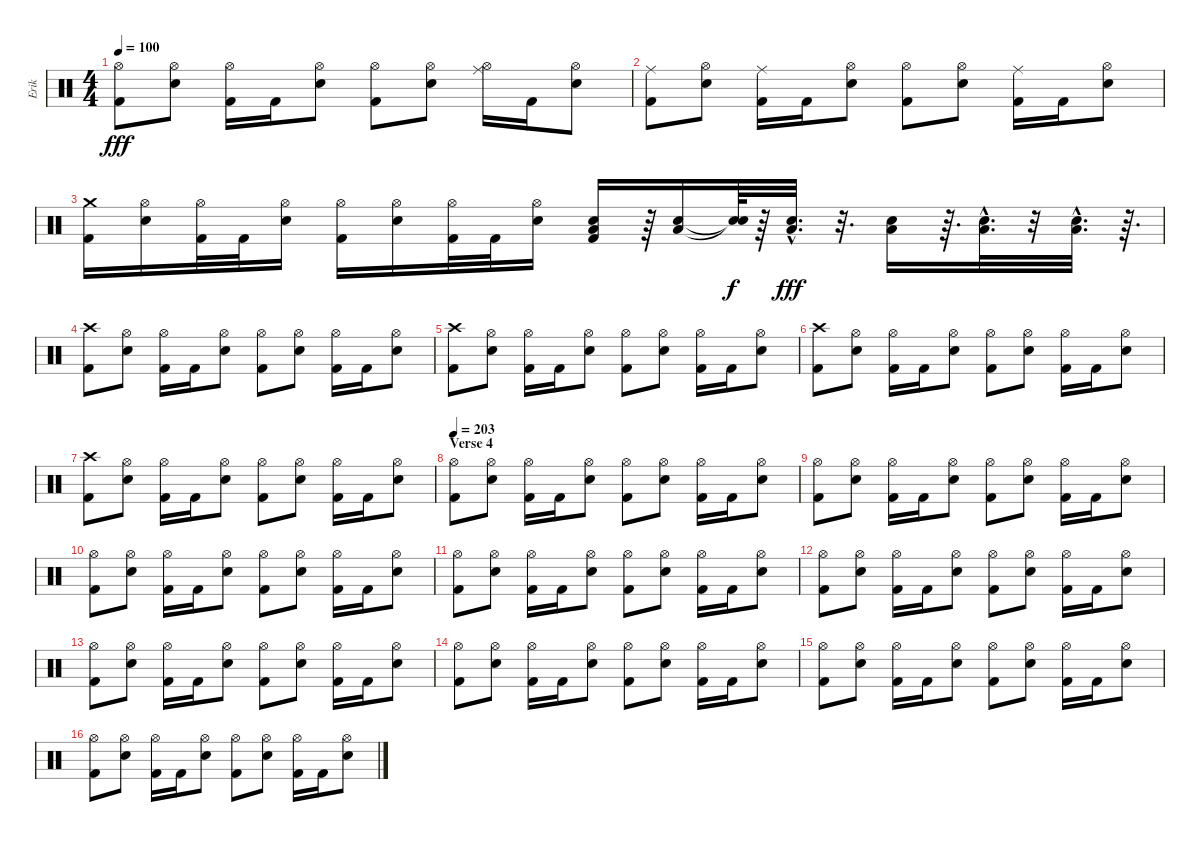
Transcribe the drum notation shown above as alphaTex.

\track ("Erik" "Erik") {instrument percussion}
\staff {score}
\articulation defaults
\ts (4 4)
\tempo 100
\clef neutral
\ks c
("Kick (hit) 2" "Hi-Hat (open)").8{dy fff} ("Electric Snare (hit)" "Hi-Hat (open)").8 ("Kick (hit) 2" "Hi-Hat (open)").16 "Kick (hit) 2".16 ("Electric Snare (hit)" "Hi-Hat (open)").8 ("Kick (hit) 2" "Hi-Hat (open)").8 ("Electric Snare (hit)" "Hi-Hat (open)").8 ("Ride (middle)" "Hi-Hat (open)").16 "Kick (hit) 2".16 ("Electric Snare (hit)" "Hi-Hat (open)").8 |
("Ride (middle)" "Kick (hit) 2").8 ("Electric Snare (hit)" "Hi-Hat (open)").8 ("Ride (middle)" "Kick (hit) 2").16 "Kick (hit) 2".16 ("Electric Snare (hit)" "Hi-Hat (open)").8 ("Kick (hit) 2" "Hi-Hat (open)").8 ("Electric Snare (hit)" "Hi-Hat (open)").8 ("Ride (middle)" "Kick (hit) 2").16 "Kick (hit) 2".16 ("Electric Snare (hit)" "Hi-Hat (open)").8 |
("Kick (hit) 2" "Crash medium (hit)").16 ("Electric Snare (hit)" "Hi-Hat (open)").16 ("Kick (hit) 2" "Hi-Hat (open)").32 "Kick (hit) 2".32 ("Electric Snare (hit)" "Hi-Hat (open)").16 ("Kick (hit) 2" "Hi-Hat (open)").16 ("Electric Snare (hit)" "Hi-Hat (open)").16 ("Kick (hit) 2" "Hi-Hat (open)").32 "Kick (hit) 2".32 ("Electric Snare (hit)" "Hi-Hat (open)").16 ("Electric Snare (hit)" "Low Floor Tom (hit)" "Kick (hit) 2").16 r.64 ("Electric Snare (hit)" "Low Floor Tom (hit)").16 ("Snare (hit)"{t} "Snare (hit)"{t}).64{dy f} r.64 ("Electric Snare (hit)"{hac} "Low Floor Tom (hit)"{hac}).32{d dy fff} r.32{d} ("Low Floor Tom (hit)" "Electric Snare (hit)").16 r.64{d} ("Electric Snare (hit)"{hac} "Low Floor Tom (hit)"{hac}).32{d} r.32 ("Electric Snare (hit)"{hac} "Low Floor Tom (hit)"{hac}).32{d} r.64{d} |
("Kick (hit) 2" "Crash high (hit)").8 ("Electric Snare (hit)" "Hi-Hat (open)").8 ("Kick (hit) 2" "Hi-Hat (open)").16 "Kick (hit) 2".16 ("Electric Snare (hit)" "Hi-Hat (open)").8 ("Kick (hit) 2" "Hi-Hat (open)").8 ("Electric Snare (hit)" "Hi-Hat (open)").8 ("Kick (hit) 2" "Hi-Hat (open)").16 "Kick (hit) 2".16 ("Electric Snare (hit)" "Hi-Hat (open)").8 |
("Kick (hit) 2" "Crash high (hit)").8 ("Electric Snare (hit)" "Hi-Hat (open)").8 ("Kick (hit) 2" "Hi-Hat (open)").16 "Kick (hit) 2".16 ("Electric Snare (hit)" "Hi-Hat (open)").8 ("Kick (hit) 2" "Hi-Hat (open)").8 ("Electric Snare (hit)" "Hi-Hat (open)").8 ("Kick (hit) 2" "Hi-Hat (open)").16 "Kick (hit) 2".16 ("Electric Snare (hit)" "Hi-Hat (open)").8 |
("Kick (hit) 2" "Crash high (hit)").8 ("Electric Snare (hit)" "Hi-Hat (open)").8 ("Kick (hit) 2" "Hi-Hat (open)").16 "Kick (hit) 2".16 ("Electric Snare (hit)" "Hi-Hat (open)").8 ("Kick (hit) 2" "Hi-Hat (open)").8 ("Electric Snare (hit)" "Hi-Hat (open)").8 ("Kick (hit) 2" "Hi-Hat (open)").16 "Kick (hit) 2".16 ("Electric Snare (hit)" "Hi-Hat (open)").8 |
("Kick (hit) 2" "Crash high (hit)").8 ("Electric Snare (hit)" "Hi-Hat (open)").8 ("Kick (hit) 2" "Hi-Hat (open)").16 "Kick (hit) 2".16 ("Electric Snare (hit)" "Hi-Hat (open)").8 ("Kick (hit) 2" "Hi-Hat (open)").8 ("Electric Snare (hit)" "Hi-Hat (open)").8 ("Kick (hit) 2" "Hi-Hat (open)").16 "Kick (hit) 2".16 ("Electric Snare (hit)" "Hi-Hat (open)").8 |
\section ("" "Verse 4")
\tempo 203
("Kick (hit) 2" "Hi-Hat (open)").8 ("Electric Snare (hit)" "Hi-Hat (open)").8 ("Kick (hit) 2" "Hi-Hat (open)").16 "Kick (hit) 2".16 ("Electric Snare (hit)" "Hi-Hat (open)").8 ("Kick (hit) 2" "Hi-Hat (open)").8 ("Electric Snare (hit)" "Hi-Hat (open)").8 ("Kick (hit) 2" "Hi-Hat (open)").16 "Kick (hit) 2".16 ("Electric Snare (hit)" "Hi-Hat (open)").8 |
("Kick (hit) 2" "Hi-Hat (open)").8 ("Electric Snare (hit)" "Hi-Hat (open)").8 ("Kick (hit) 2" "Hi-Hat (open)").16 "Kick (hit) 2".16 ("Electric Snare (hit)" "Hi-Hat (open)").8 ("Kick (hit) 2" "Hi-Hat (open)").8 ("Electric Snare (hit)" "Hi-Hat (open)").8 ("Kick (hit) 2" "Hi-Hat (open)").16 "Kick (hit) 2".16 ("Electric Snare (hit)" "Hi-Hat (open)").8 |
("Kick (hit) 2" "Hi-Hat (open)").8 ("Electric Snare (hit)" "Hi-Hat (open)").8 ("Kick (hit) 2" "Hi-Hat (open)").16 "Kick (hit) 2".16 ("Electric Snare (hit)" "Hi-Hat (open)").8 ("Kick (hit) 2" "Hi-Hat (open)").8 ("Electric Snare (hit)" "Hi-Hat (open)").8 ("Kick (hit) 2" "Hi-Hat (open)").16 "Kick (hit) 2".16 ("Electric Snare (hit)" "Hi-Hat (open)").8 |
("Kick (hit) 2" "Hi-Hat (open)").8 ("Electric Snare (hit)" "Hi-Hat (open)").8 ("Kick (hit) 2" "Hi-Hat (open)").16 "Kick (hit) 2".16 ("Electric Snare (hit)" "Hi-Hat (open)").8 ("Kick (hit) 2" "Hi-Hat (open)").8 ("Electric Snare (hit)" "Hi-Hat (open)").8 ("Kick (hit) 2" "Hi-Hat (open)").16 "Kick (hit) 2".16 ("Electric Snare (hit)" "Hi-Hat (open)").8 |
("Kick (hit) 2" "Hi-Hat (open)").8 ("Electric Snare (hit)" "Hi-Hat (open)").8 ("Kick (hit) 2" "Hi-Hat (open)").16 "Kick (hit) 2".16 ("Electric Snare (hit)" "Hi-Hat (open)").8 ("Kick (hit) 2" "Hi-Hat (open)").8 ("Electric Snare (hit)" "Hi-Hat (open)").8 ("Kick (hit) 2" "Hi-Hat (open)").16 "Kick (hit) 2".16 ("Electric Snare (hit)" "Hi-Hat (open)").8 |
("Kick (hit) 2" "Hi-Hat (open)").8 ("Electric Snare (hit)" "Hi-Hat (open)").8 ("Kick (hit) 2" "Hi-Hat (open)").16 "Kick (hit) 2".16 ("Electric Snare (hit)" "Hi-Hat (open)").8 ("Kick (hit) 2" "Hi-Hat (open)").8 ("Electric Snare (hit)" "Hi-Hat (open)").8 ("Kick (hit) 2" "Hi-Hat (open)").16 "Kick (hit) 2".16 ("Electric Snare (hit)" "Hi-Hat (open)").8 |
("Kick (hit) 2" "Hi-Hat (open)").8 ("Electric Snare (hit)" "Hi-Hat (open)").8 ("Kick (hit) 2" "Hi-Hat (open)").16 "Kick (hit) 2".16 ("Electric Snare (hit)" "Hi-Hat (open)").8 ("Kick (hit) 2" "Hi-Hat (open)").8 ("Electric Snare (hit)" "Hi-Hat (open)").8 ("Kick (hit) 2" "Hi-Hat (open)").16 "Kick (hit) 2".16 ("Electric Snare (hit)" "Hi-Hat (open)").8 |
("Kick (hit) 2" "Hi-Hat (open)").8 ("Electric Snare (hit)" "Hi-Hat (open)").8 ("Kick (hit) 2" "Hi-Hat (open)").16 "Kick (hit) 2".16 ("Electric Snare (hit)" "Hi-Hat (open)").8 ("Kick (hit) 2" "Hi-Hat (open)").8 ("Electric Snare (hit)" "Hi-Hat (open)").8 ("Kick (hit) 2" "Hi-Hat (open)").16 "Kick (hit) 2".16 ("Electric Snare (hit)" "Hi-Hat (open)").8 |
("Kick (hit) 2" "Hi-Hat (open)").8 ("Electric Snare (hit)" "Hi-Hat (open)").8 ("Kick (hit) 2" "Hi-Hat (open)").16 "Kick (hit) 2".16 ("Electric Snare (hit)" "Hi-Hat (open)").8 ("Kick (hit) 2" "Hi-Hat (open)").8 ("Electric Snare (hit)" "Hi-Hat (open)").8 ("Kick (hit) 2" "Hi-Hat (open)").16 "Kick (hit) 2".16 ("Electric Snare (hit)" "Hi-Hat (open)").8
